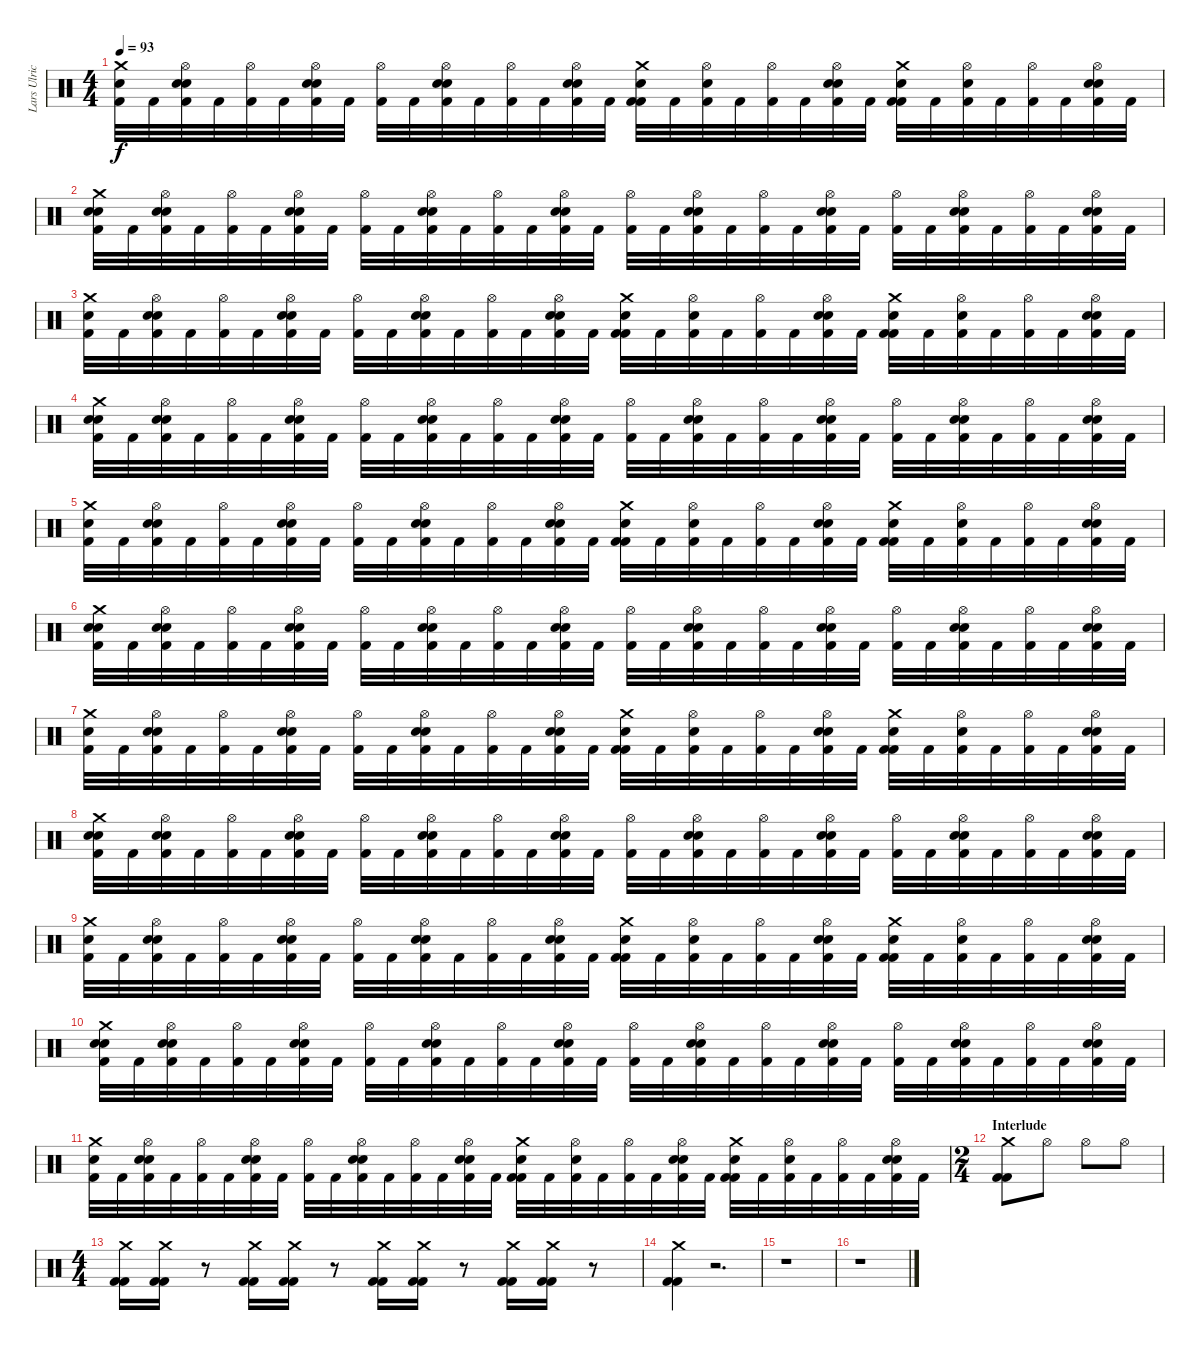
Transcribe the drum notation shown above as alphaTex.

\track ("Lars Ulrich" "Lars Ulric") {instrument percussion}
\staff {score}
\articulation defaults
\ts (4 4)
\tempo 93
\clef neutral
\ks c
("Crash medium (hit)" "Snare (hit) 2" "Kick (hit) 2").32{dy f} "Kick (hit) 2".32 ("Hi-Hat (open)" "Electric Snare (hit)" "Snare (hit) 2" "Kick (hit) 2").32 "Kick (hit) 2".32 ("Hi-Hat (open)" "Kick (hit) 2").32 "Kick (hit) 2".32 ("Hi-Hat (open)" "Electric Snare (hit)" "Snare (hit) 2" "Kick (hit) 2").32 "Kick (hit) 2".32 ("Hi-Hat (open)" "Kick (hit) 2").32 "Kick (hit) 2".32 ("Hi-Hat (open)" "Electric Snare (hit)" "Snare (hit) 2" "Kick (hit) 2").32 "Kick (hit) 2".32 ("Hi-Hat (open)" "Kick (hit) 2").32 "Kick (hit) 2".32 ("Hi-Hat (open)" "Electric Snare (hit)" "Snare (hit) 2" "Kick (hit) 2").32 "Kick (hit) 2".32 ("Crash medium (hit)" "Snare (hit) 2" "Kick (hit) 2" "Kick (hit) 2").32 "Kick (hit) 2".32 ("Hi-Hat (open)" "Electric Snare (hit)" "Kick (hit) 2").32 "Kick (hit) 2".32 ("Hi-Hat (open)" "Kick (hit) 2").32 "Kick (hit) 2".32 ("Hi-Hat (open)" "Electric Snare (hit)" "Snare (hit) 2" "Kick (hit) 2").32 "Kick (hit) 2".32 ("Crash medium (hit)" "Snare (hit) 2" "Kick (hit) 2" "Kick (hit) 2").32 "Kick (hit) 2".32 ("Hi-Hat (open)" "Electric Snare (hit)" "Kick (hit) 2").32 "Kick (hit) 2".32 ("Hi-Hat (open)" "Kick (hit) 2").32 "Kick (hit) 2".32 ("Hi-Hat (open)" "Electric Snare (hit)" "Snare (hit) 2" "Kick (hit) 2").32 "Kick (hit) 2".32 |
("Crash medium (hit)" "Snare (hit) 2" "Snare (hit) 2" "Kick (hit) 2").32 "Kick (hit) 2".32 ("Hi-Hat (open)" "Electric Snare (hit)" "Snare (hit) 2" "Kick (hit) 2").32 "Kick (hit) 2".32 ("Hi-Hat (open)" "Kick (hit) 2").32 "Kick (hit) 2".32 ("Hi-Hat (open)" "Electric Snare (hit)" "Snare (hit) 2" "Kick (hit) 2").32 "Kick (hit) 2".32 ("Hi-Hat (open)" "Kick (hit) 2").32 "Kick (hit) 2".32 ("Hi-Hat (open)" "Electric Snare (hit)" "Snare (hit) 2" "Kick (hit) 2").32 "Kick (hit) 2".32 ("Hi-Hat (open)" "Kick (hit) 2").32 "Kick (hit) 2".32 ("Hi-Hat (open)" "Electric Snare (hit)" "Snare (hit) 2" "Kick (hit) 2").32 "Kick (hit) 2".32 ("Hi-Hat (open)" "Kick (hit) 2").32 "Kick (hit) 2".32 ("Hi-Hat (open)" "Electric Snare (hit)" "Snare (hit) 2" "Kick (hit) 2").32 "Kick (hit) 2".32 ("Hi-Hat (open)" "Kick (hit) 2").32 "Kick (hit) 2".32 ("Hi-Hat (open)" "Electric Snare (hit)" "Snare (hit) 2" "Kick (hit) 2").32 "Kick (hit) 2".32 ("Hi-Hat (open)" "Kick (hit) 2").32 "Kick (hit) 2".32 ("Hi-Hat (open)" "Electric Snare (hit)" "Snare (hit) 2" "Kick (hit) 2").32 "Kick (hit) 2".32 ("Hi-Hat (open)" "Kick (hit) 2").32 "Kick (hit) 2".32 ("Hi-Hat (open)" "Electric Snare (hit)" "Snare (hit) 2" "Kick (hit) 2").32 "Kick (hit) 2".32 |
("Crash medium (hit)" "Snare (hit) 2" "Kick (hit) 2").32 "Kick (hit) 2".32 ("Hi-Hat (open)" "Electric Snare (hit)" "Snare (hit) 2" "Kick (hit) 2").32 "Kick (hit) 2".32 ("Hi-Hat (open)" "Kick (hit) 2").32 "Kick (hit) 2".32 ("Hi-Hat (open)" "Electric Snare (hit)" "Snare (hit) 2" "Kick (hit) 2").32 "Kick (hit) 2".32 ("Hi-Hat (open)" "Kick (hit) 2").32 "Kick (hit) 2".32 ("Hi-Hat (open)" "Electric Snare (hit)" "Snare (hit) 2" "Kick (hit) 2").32 "Kick (hit) 2".32 ("Hi-Hat (open)" "Kick (hit) 2").32 "Kick (hit) 2".32 ("Hi-Hat (open)" "Electric Snare (hit)" "Snare (hit) 2" "Kick (hit) 2").32 "Kick (hit) 2".32 ("Crash medium (hit)" "Snare (hit) 2" "Kick (hit) 2" "Kick (hit) 2").32 "Kick (hit) 2".32 ("Hi-Hat (open)" "Electric Snare (hit)" "Kick (hit) 2").32 "Kick (hit) 2".32 ("Hi-Hat (open)" "Kick (hit) 2").32 "Kick (hit) 2".32 ("Hi-Hat (open)" "Electric Snare (hit)" "Snare (hit) 2" "Kick (hit) 2").32 "Kick (hit) 2".32 ("Crash medium (hit)" "Snare (hit) 2" "Kick (hit) 2" "Kick (hit) 2").32 "Kick (hit) 2".32 ("Hi-Hat (open)" "Electric Snare (hit)" "Kick (hit) 2").32 "Kick (hit) 2".32 ("Hi-Hat (open)" "Kick (hit) 2").32 "Kick (hit) 2".32 ("Hi-Hat (open)" "Electric Snare (hit)" "Snare (hit) 2" "Kick (hit) 2").32 "Kick (hit) 2".32 |
("Crash medium (hit)" "Snare (hit) 2" "Snare (hit) 2" "Kick (hit) 2").32 "Kick (hit) 2".32 ("Hi-Hat (open)" "Electric Snare (hit)" "Snare (hit) 2" "Kick (hit) 2").32 "Kick (hit) 2".32 ("Hi-Hat (open)" "Kick (hit) 2").32 "Kick (hit) 2".32 ("Hi-Hat (open)" "Electric Snare (hit)" "Snare (hit) 2" "Kick (hit) 2").32 "Kick (hit) 2".32 ("Hi-Hat (open)" "Kick (hit) 2").32 "Kick (hit) 2".32 ("Hi-Hat (open)" "Electric Snare (hit)" "Snare (hit) 2" "Kick (hit) 2").32 "Kick (hit) 2".32 ("Hi-Hat (open)" "Kick (hit) 2").32 "Kick (hit) 2".32 ("Hi-Hat (open)" "Electric Snare (hit)" "Snare (hit) 2" "Kick (hit) 2").32 "Kick (hit) 2".32 ("Hi-Hat (open)" "Kick (hit) 2").32 "Kick (hit) 2".32 ("Hi-Hat (open)" "Electric Snare (hit)" "Snare (hit) 2" "Kick (hit) 2").32 "Kick (hit) 2".32 ("Hi-Hat (open)" "Kick (hit) 2").32 "Kick (hit) 2".32 ("Hi-Hat (open)" "Electric Snare (hit)" "Snare (hit) 2" "Kick (hit) 2").32 "Kick (hit) 2".32 ("Hi-Hat (open)" "Kick (hit) 2").32 "Kick (hit) 2".32 ("Hi-Hat (open)" "Electric Snare (hit)" "Snare (hit) 2" "Kick (hit) 2").32 "Kick (hit) 2".32 ("Hi-Hat (open)" "Kick (hit) 2").32 "Kick (hit) 2".32 ("Hi-Hat (open)" "Electric Snare (hit)" "Snare (hit) 2" "Kick (hit) 2").32 "Kick (hit) 2".32 |
("Crash medium (hit)" "Snare (hit) 2" "Kick (hit) 2").32 "Kick (hit) 2".32 ("Hi-Hat (open)" "Electric Snare (hit)" "Snare (hit) 2" "Kick (hit) 2").32 "Kick (hit) 2".32 ("Hi-Hat (open)" "Kick (hit) 2").32 "Kick (hit) 2".32 ("Hi-Hat (open)" "Electric Snare (hit)" "Snare (hit) 2" "Kick (hit) 2").32 "Kick (hit) 2".32 ("Hi-Hat (open)" "Kick (hit) 2").32 "Kick (hit) 2".32 ("Hi-Hat (open)" "Electric Snare (hit)" "Snare (hit) 2" "Kick (hit) 2").32 "Kick (hit) 2".32 ("Hi-Hat (open)" "Kick (hit) 2").32 "Kick (hit) 2".32 ("Hi-Hat (open)" "Electric Snare (hit)" "Snare (hit) 2" "Kick (hit) 2").32 "Kick (hit) 2".32 ("Crash medium (hit)" "Snare (hit) 2" "Kick (hit) 2" "Kick (hit) 2").32 "Kick (hit) 2".32 ("Hi-Hat (open)" "Electric Snare (hit)" "Kick (hit) 2").32 "Kick (hit) 2".32 ("Hi-Hat (open)" "Kick (hit) 2").32 "Kick (hit) 2".32 ("Hi-Hat (open)" "Electric Snare (hit)" "Snare (hit) 2" "Kick (hit) 2").32 "Kick (hit) 2".32 ("Crash medium (hit)" "Snare (hit) 2" "Kick (hit) 2" "Kick (hit) 2").32 "Kick (hit) 2".32 ("Hi-Hat (open)" "Electric Snare (hit)" "Kick (hit) 2").32 "Kick (hit) 2".32 ("Hi-Hat (open)" "Kick (hit) 2").32 "Kick (hit) 2".32 ("Hi-Hat (open)" "Electric Snare (hit)" "Snare (hit) 2" "Kick (hit) 2").32 "Kick (hit) 2".32 |
("Crash medium (hit)" "Snare (hit) 2" "Snare (hit) 2" "Kick (hit) 2").32 "Kick (hit) 2".32 ("Hi-Hat (open)" "Electric Snare (hit)" "Snare (hit) 2" "Kick (hit) 2").32 "Kick (hit) 2".32 ("Hi-Hat (open)" "Kick (hit) 2").32 "Kick (hit) 2".32 ("Hi-Hat (open)" "Electric Snare (hit)" "Snare (hit) 2" "Kick (hit) 2").32 "Kick (hit) 2".32 ("Hi-Hat (open)" "Kick (hit) 2").32 "Kick (hit) 2".32 ("Hi-Hat (open)" "Electric Snare (hit)" "Snare (hit) 2" "Kick (hit) 2").32 "Kick (hit) 2".32 ("Hi-Hat (open)" "Kick (hit) 2").32 "Kick (hit) 2".32 ("Hi-Hat (open)" "Electric Snare (hit)" "Snare (hit) 2" "Kick (hit) 2").32 "Kick (hit) 2".32 ("Hi-Hat (open)" "Kick (hit) 2").32 "Kick (hit) 2".32 ("Hi-Hat (open)" "Electric Snare (hit)" "Snare (hit) 2" "Kick (hit) 2").32 "Kick (hit) 2".32 ("Hi-Hat (open)" "Kick (hit) 2").32 "Kick (hit) 2".32 ("Hi-Hat (open)" "Electric Snare (hit)" "Snare (hit) 2" "Kick (hit) 2").32 "Kick (hit) 2".32 ("Hi-Hat (open)" "Kick (hit) 2").32 "Kick (hit) 2".32 ("Hi-Hat (open)" "Electric Snare (hit)" "Snare (hit) 2" "Kick (hit) 2").32 "Kick (hit) 2".32 ("Hi-Hat (open)" "Kick (hit) 2").32 "Kick (hit) 2".32 ("Hi-Hat (open)" "Electric Snare (hit)" "Snare (hit) 2" "Kick (hit) 2").32 "Kick (hit) 2".32 |
("Crash medium (hit)" "Snare (hit) 2" "Kick (hit) 2").32 "Kick (hit) 2".32 ("Hi-Hat (open)" "Electric Snare (hit)" "Snare (hit) 2" "Kick (hit) 2").32 "Kick (hit) 2".32 ("Hi-Hat (open)" "Kick (hit) 2").32 "Kick (hit) 2".32 ("Hi-Hat (open)" "Electric Snare (hit)" "Snare (hit) 2" "Kick (hit) 2").32 "Kick (hit) 2".32 ("Hi-Hat (open)" "Kick (hit) 2").32 "Kick (hit) 2".32 ("Hi-Hat (open)" "Electric Snare (hit)" "Snare (hit) 2" "Kick (hit) 2").32 "Kick (hit) 2".32 ("Hi-Hat (open)" "Kick (hit) 2").32 "Kick (hit) 2".32 ("Hi-Hat (open)" "Electric Snare (hit)" "Snare (hit) 2" "Kick (hit) 2").32 "Kick (hit) 2".32 ("Crash medium (hit)" "Snare (hit) 2" "Kick (hit) 2" "Kick (hit) 2").32 "Kick (hit) 2".32 ("Hi-Hat (open)" "Electric Snare (hit)" "Kick (hit) 2").32 "Kick (hit) 2".32 ("Hi-Hat (open)" "Kick (hit) 2").32 "Kick (hit) 2".32 ("Hi-Hat (open)" "Electric Snare (hit)" "Snare (hit) 2" "Kick (hit) 2").32 "Kick (hit) 2".32 ("Crash medium (hit)" "Snare (hit) 2" "Kick (hit) 2" "Kick (hit) 2").32 "Kick (hit) 2".32 ("Hi-Hat (open)" "Electric Snare (hit)" "Kick (hit) 2").32 "Kick (hit) 2".32 ("Hi-Hat (open)" "Kick (hit) 2").32 "Kick (hit) 2".32 ("Hi-Hat (open)" "Electric Snare (hit)" "Snare (hit) 2" "Kick (hit) 2").32 "Kick (hit) 2".32 |
("Crash medium (hit)" "Snare (hit) 2" "Snare (hit) 2" "Kick (hit) 2").32 "Kick (hit) 2".32 ("Hi-Hat (open)" "Electric Snare (hit)" "Snare (hit) 2" "Kick (hit) 2").32 "Kick (hit) 2".32 ("Hi-Hat (open)" "Kick (hit) 2").32 "Kick (hit) 2".32 ("Hi-Hat (open)" "Electric Snare (hit)" "Snare (hit) 2" "Kick (hit) 2").32 "Kick (hit) 2".32 ("Hi-Hat (open)" "Kick (hit) 2").32 "Kick (hit) 2".32 ("Hi-Hat (open)" "Electric Snare (hit)" "Snare (hit) 2" "Kick (hit) 2").32 "Kick (hit) 2".32 ("Hi-Hat (open)" "Kick (hit) 2").32 "Kick (hit) 2".32 ("Hi-Hat (open)" "Electric Snare (hit)" "Snare (hit) 2" "Kick (hit) 2").32 "Kick (hit) 2".32 ("Hi-Hat (open)" "Kick (hit) 2").32 "Kick (hit) 2".32 ("Hi-Hat (open)" "Electric Snare (hit)" "Snare (hit) 2" "Kick (hit) 2").32 "Kick (hit) 2".32 ("Hi-Hat (open)" "Kick (hit) 2").32 "Kick (hit) 2".32 ("Hi-Hat (open)" "Electric Snare (hit)" "Snare (hit) 2" "Kick (hit) 2").32 "Kick (hit) 2".32 ("Hi-Hat (open)" "Kick (hit) 2").32 "Kick (hit) 2".32 ("Hi-Hat (open)" "Electric Snare (hit)" "Snare (hit) 2" "Kick (hit) 2").32 "Kick (hit) 2".32 ("Hi-Hat (open)" "Kick (hit) 2").32 "Kick (hit) 2".32 ("Hi-Hat (open)" "Electric Snare (hit)" "Snare (hit) 2" "Kick (hit) 2").32 "Kick (hit) 2".32 |
("Crash medium (hit)" "Snare (hit) 2" "Kick (hit) 2").32 "Kick (hit) 2".32 ("Hi-Hat (open)" "Electric Snare (hit)" "Snare (hit) 2" "Kick (hit) 2").32 "Kick (hit) 2".32 ("Hi-Hat (open)" "Kick (hit) 2").32 "Kick (hit) 2".32 ("Hi-Hat (open)" "Electric Snare (hit)" "Snare (hit) 2" "Kick (hit) 2").32 "Kick (hit) 2".32 ("Hi-Hat (open)" "Kick (hit) 2").32 "Kick (hit) 2".32 ("Hi-Hat (open)" "Electric Snare (hit)" "Snare (hit) 2" "Kick (hit) 2").32 "Kick (hit) 2".32 ("Hi-Hat (open)" "Kick (hit) 2").32 "Kick (hit) 2".32 ("Hi-Hat (open)" "Electric Snare (hit)" "Snare (hit) 2" "Kick (hit) 2").32 "Kick (hit) 2".32 ("Crash medium (hit)" "Snare (hit) 2" "Kick (hit) 2" "Kick (hit) 2").32 "Kick (hit) 2".32 ("Hi-Hat (open)" "Electric Snare (hit)" "Kick (hit) 2").32 "Kick (hit) 2".32 ("Hi-Hat (open)" "Kick (hit) 2").32 "Kick (hit) 2".32 ("Hi-Hat (open)" "Electric Snare (hit)" "Snare (hit) 2" "Kick (hit) 2").32 "Kick (hit) 2".32 ("Crash medium (hit)" "Snare (hit) 2" "Kick (hit) 2" "Kick (hit) 2").32 "Kick (hit) 2".32 ("Hi-Hat (open)" "Electric Snare (hit)" "Kick (hit) 2").32 "Kick (hit) 2".32 ("Hi-Hat (open)" "Kick (hit) 2").32 "Kick (hit) 2".32 ("Hi-Hat (open)" "Electric Snare (hit)" "Snare (hit) 2" "Kick (hit) 2").32 "Kick (hit) 2".32 |
("Crash medium (hit)" "Snare (hit) 2" "Snare (hit) 2" "Kick (hit) 2").32 "Kick (hit) 2".32 ("Hi-Hat (open)" "Electric Snare (hit)" "Snare (hit) 2" "Kick (hit) 2").32 "Kick (hit) 2".32 ("Hi-Hat (open)" "Kick (hit) 2").32 "Kick (hit) 2".32 ("Hi-Hat (open)" "Electric Snare (hit)" "Snare (hit) 2" "Kick (hit) 2").32 "Kick (hit) 2".32 ("Hi-Hat (open)" "Kick (hit) 2").32 "Kick (hit) 2".32 ("Hi-Hat (open)" "Electric Snare (hit)" "Snare (hit) 2" "Kick (hit) 2").32 "Kick (hit) 2".32 ("Hi-Hat (open)" "Kick (hit) 2").32 "Kick (hit) 2".32 ("Hi-Hat (open)" "Electric Snare (hit)" "Snare (hit) 2" "Kick (hit) 2").32 "Kick (hit) 2".32 ("Hi-Hat (open)" "Kick (hit) 2").32 "Kick (hit) 2".32 ("Hi-Hat (open)" "Electric Snare (hit)" "Snare (hit) 2" "Kick (hit) 2").32 "Kick (hit) 2".32 ("Hi-Hat (open)" "Kick (hit) 2").32 "Kick (hit) 2".32 ("Hi-Hat (open)" "Electric Snare (hit)" "Snare (hit) 2" "Kick (hit) 2").32 "Kick (hit) 2".32 ("Hi-Hat (open)" "Kick (hit) 2").32 "Kick (hit) 2".32 ("Hi-Hat (open)" "Electric Snare (hit)" "Snare (hit) 2" "Kick (hit) 2").32 "Kick (hit) 2".32 ("Hi-Hat (open)" "Kick (hit) 2").32 "Kick (hit) 2".32 ("Hi-Hat (open)" "Electric Snare (hit)" "Snare (hit) 2" "Kick (hit) 2").32 "Kick (hit) 2".32 |
("Crash medium (hit)" "Snare (hit) 2" "Kick (hit) 2").32 "Kick (hit) 2".32 ("Hi-Hat (open)" "Electric Snare (hit)" "Snare (hit) 2" "Kick (hit) 2").32 "Kick (hit) 2".32 ("Hi-Hat (open)" "Kick (hit) 2").32 "Kick (hit) 2".32 ("Hi-Hat (open)" "Electric Snare (hit)" "Snare (hit) 2" "Kick (hit) 2").32 "Kick (hit) 2".32 ("Hi-Hat (open)" "Kick (hit) 2").32 "Kick (hit) 2".32 ("Hi-Hat (open)" "Electric Snare (hit)" "Snare (hit) 2" "Kick (hit) 2").32 "Kick (hit) 2".32 ("Hi-Hat (open)" "Kick (hit) 2").32 "Kick (hit) 2".32 ("Hi-Hat (open)" "Electric Snare (hit)" "Snare (hit) 2" "Kick (hit) 2").32 "Kick (hit) 2".32 ("Crash medium (hit)" "Snare (hit) 2" "Kick (hit) 2" "Kick (hit) 2").32 "Kick (hit) 2".32 ("Hi-Hat (open)" "Electric Snare (hit)" "Kick (hit) 2").32 "Kick (hit) 2".32 ("Hi-Hat (open)" "Kick (hit) 2").32 "Kick (hit) 2".32 ("Hi-Hat (open)" "Electric Snare (hit)" "Snare (hit) 2" "Kick (hit) 2").32 "Kick (hit) 2".32 ("Crash medium (hit)" "Snare (hit) 2" "Kick (hit) 2" "Kick (hit) 2").32 "Kick (hit) 2".32 ("Hi-Hat (open)" "Electric Snare (hit)" "Kick (hit) 2").32 "Kick (hit) 2".32 ("Hi-Hat (open)" "Kick (hit) 2").32 "Kick (hit) 2".32 ("Hi-Hat (open)" "Electric Snare (hit)" "Snare (hit) 2" "Kick (hit) 2").32 "Kick (hit) 2".32 |
\ts (2 4)
\section ("" "Interlude")
("Crash medium (hit)" "Kick (hit) 2" "Kick (hit) 2").8 "Hi-Hat (open)".8 "Hi-Hat (open)".8 "Hi-Hat (open)".8 |
\ts (4 4)
("Crash medium (hit)" "Kick (hit) 2" "Kick (hit) 2").16 ("Crash medium (hit)" "Kick (hit) 2" "Kick (hit) 2").16 r.8 ("Crash medium (hit)" "Kick (hit) 2" "Kick (hit) 2").16 ("Crash medium (hit)" "Kick (hit) 2" "Kick (hit) 2").16 r.8 ("Crash medium (hit)" "Kick (hit) 2" "Kick (hit) 2").16 ("Crash medium (hit)" "Kick (hit) 2" "Kick (hit) 2").16 r.8 ("Crash medium (hit)" "Kick (hit) 2" "Kick (hit) 2").16 ("Crash medium (hit)" "Kick (hit) 2" "Kick (hit) 2").16 r.8 |
("Crash medium (hit)" "Kick (hit) 2" "Kick (hit) 2").4 r.2{d} |
r.1 |
r.1
